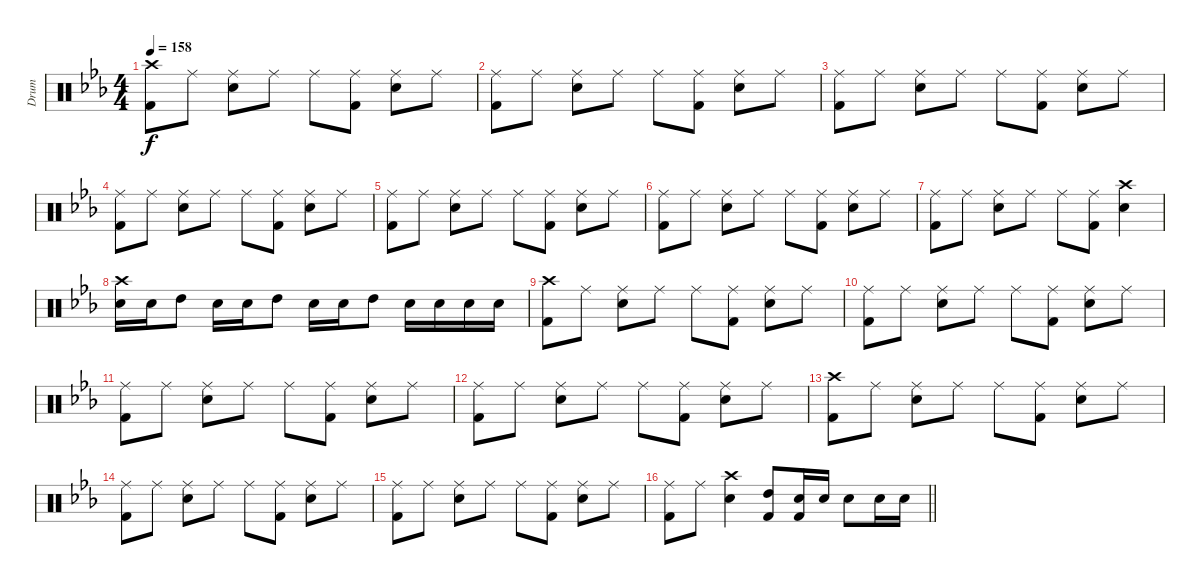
\track ("Drum" "Drum") {instrument percussion}
\staff {score}
\articulation defaults
\ts (4 4)
\tempo 158
\clef neutral
\ks eb
("Crash high (hit)" "Kick (hit) 2").8{dy f} "Ride (middle)".8 ("Ride (middle)" "Electric Snare (hit)").8 "Ride (middle)".8 "Ride (middle)".8 ("Ride (middle)" "Kick (hit) 2").8 ("Ride (middle)" "Electric Snare (hit)").8 "Ride (middle)".8 |
("Ride (middle)" "Kick (hit) 2").8 "Ride (middle)".8 ("Ride (middle)" "Electric Snare (hit)").8 "Ride (middle)".8 "Ride (middle)".8 ("Ride (middle)" "Kick (hit) 2").8 ("Ride (middle)" "Electric Snare (hit)").8 "Ride (middle)".8 |
("Ride (middle)" "Kick (hit) 2").8 "Ride (middle)".8 ("Ride (middle)" "Electric Snare (hit)").8 "Ride (middle)".8 "Ride (middle)".8 ("Ride (middle)" "Kick (hit) 2").8 ("Ride (middle)" "Electric Snare (hit)").8 "Ride (middle)".8 |
("Ride (middle)" "Kick (hit) 2").8 "Ride (middle)".8 ("Ride (middle)" "Electric Snare (hit)").8 "Ride (middle)".8 "Ride (middle)".8 ("Ride (middle)" "Kick (hit) 2").8 ("Ride (middle)" "Electric Snare (hit)").8 "Ride (middle)".8 |
("Ride (middle)" "Kick (hit) 2").8 "Ride (middle)".8 ("Ride (middle)" "Electric Snare (hit)").8 "Ride (middle)".8 "Ride (middle)".8 ("Ride (middle)" "Kick (hit) 2").8 ("Ride (middle)" "Electric Snare (hit)").8 "Ride (middle)".8 |
("Ride (middle)" "Kick (hit) 2").8 "Ride (middle)".8 ("Ride (middle)" "Electric Snare (hit)").8 "Ride (middle)".8 "Ride (middle)".8 ("Ride (middle)" "Kick (hit) 2").8 ("Ride (middle)" "Electric Snare (hit)").8 "Ride (middle)".8 |
("Ride (middle)" "Kick (hit) 2").8 "Ride (middle)".8 ("Ride (middle)" "Electric Snare (hit)").8 "Ride (middle)".8 "Ride (middle)".8 ("Ride (middle)" "Kick (hit) 2").8 ("Crash high (hit)" "Electric Snare (hit)").4 |
("Crash high (hit)" "Electric Snare (hit)").16 "Electric Snare (hit)".16 "High Tom (hit)".8 "Electric Snare (hit)".16 "Electric Snare (hit)".16 "High Tom (hit)".8 "Electric Snare (hit)".16 "Electric Snare (hit)".16 "High Tom (hit)".8 "Electric Snare (hit)".16 "Electric Snare (hit)".16 "Electric Snare (hit)".16 "Electric Snare (hit)".16 |
("Crash high (hit)" "Kick (hit) 2").8 "Ride (middle)".8 ("Ride (middle)" "Electric Snare (hit)").8 "Ride (middle)".8 "Ride (middle)".8 ("Ride (middle)" "Kick (hit) 2").8 ("Ride (middle)" "Electric Snare (hit)").8 "Ride (middle)".8 |
("Ride (middle)" "Kick (hit) 2").8 "Ride (middle)".8 ("Ride (middle)" "Electric Snare (hit)").8 "Ride (middle)".8 "Ride (middle)".8 ("Ride (middle)" "Kick (hit) 2").8 ("Ride (middle)" "Electric Snare (hit)").8 "Ride (middle)".8 |
("Ride (middle)" "Kick (hit) 2").8 "Ride (middle)".8 ("Ride (middle)" "Electric Snare (hit)").8 "Ride (middle)".8 "Ride (middle)".8 ("Ride (middle)" "Kick (hit) 2").8 ("Ride (middle)" "Electric Snare (hit)").8 "Ride (middle)".8 |
("Ride (middle)" "Kick (hit) 2").8 "Ride (middle)".8 ("Ride (middle)" "Electric Snare (hit)").8 "Ride (middle)".8 "Ride (middle)".8 ("Ride (middle)" "Kick (hit) 2").8 ("Ride (middle)" "Electric Snare (hit)").8 "Ride (middle)".8 |
("Crash high (hit)" "Kick (hit) 2").8 "Ride (middle)".8 ("Ride (middle)" "Electric Snare (hit)").8 "Ride (middle)".8 "Ride (middle)".8 ("Ride (middle)" "Kick (hit) 2").8 ("Ride (middle)" "Electric Snare (hit)").8 "Ride (middle)".8 |
("Ride (middle)" "Kick (hit) 2").8 "Ride (middle)".8 ("Ride (middle)" "Electric Snare (hit)").8 "Ride (middle)".8 "Ride (middle)".8 ("Ride (middle)" "Kick (hit) 2").8 ("Ride (middle)" "Electric Snare (hit)").8 "Ride (middle)".8 |
("Ride (middle)" "Kick (hit) 2").8 "Ride (middle)".8 ("Ride (middle)" "Electric Snare (hit)").8 "Ride (middle)".8 "Ride (middle)".8 ("Ride (middle)" "Kick (hit) 2").8 ("Ride (middle)" "Electric Snare (hit)").8 "Ride (middle)".8 |
\barLineRight lightlight
("Ride (middle)" "Kick (hit) 2").8 "Ride (middle)".8 ("Crash high (hit)" "Electric Snare (hit)").4 ("High Tom (hit)" "Kick (hit) 2").8 ("Snare (hit) 2" "Kick (hit) 2").16 "Electric Snare (hit)".16 "Electric Snare (hit)".8 "Electric Snare (hit)".16 "Electric Snare (hit)".16
